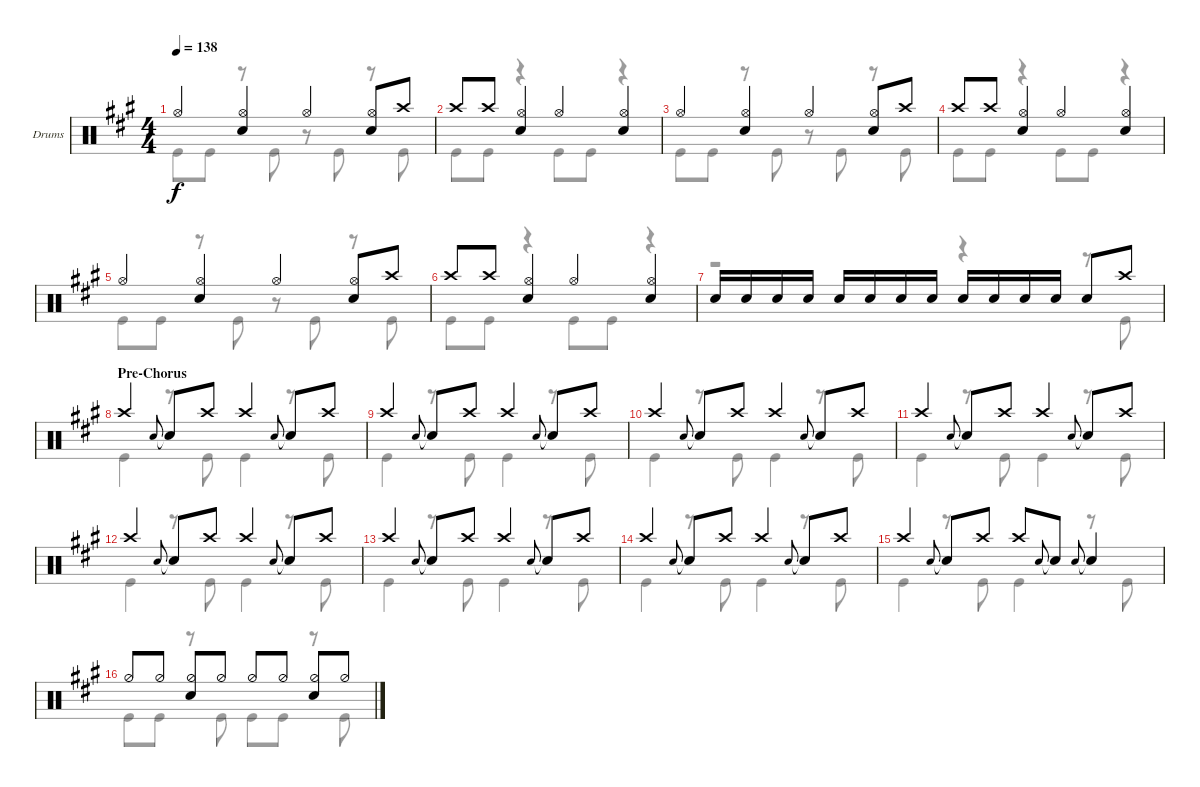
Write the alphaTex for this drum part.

\defaultSystemsLayout 4
\bracketExtendMode groupsimilarinstruments
\firstSystemTrackNameOrientation horizontal
\otherSystemsTrackNameOrientation horizontal
\track ("Drumkit" "Drums") {instrument percussion}
\staff {score}
\articulation defaults
\voice
\ts (4 4)
\tempo 138
\clef neutral
\ks a "Hi-Hat (open)".4{dy f}
("Snare (hit) 2" "Hi-Hat (open)").4 "Hi-Hat (open)".4 ("Snare (hit) 2" "Hi-Hat (open)").8 "Crash high (hit)".8 |
"Crash high (hit)".8 "Crash high (hit)".8 ("Hi-Hat (open)" "Snare (hit) 2").4 "Hi-Hat (open)".4 ("Hi-Hat (open)" "Snare (hit) 2").4 |
"Hi-Hat (open)".4 ("Snare (hit) 2" "Hi-Hat (open)").4 "Hi-Hat (open)".4 ("Snare (hit) 2" "Hi-Hat (open)").8 "Crash high (hit)".8 |
"Crash high (hit)".8 "Crash high (hit)".8 ("Hi-Hat (open)" "Snare (hit) 2").4 "Hi-Hat (open)".4 ("Hi-Hat (open)" "Snare (hit) 2").4 |
"Hi-Hat (open)".4 ("Snare (hit) 2" "Hi-Hat (open)").4 "Hi-Hat (open)".4 ("Snare (hit) 2" "Hi-Hat (open)").8 "Crash high (hit)".8 |
"Crash high (hit)".8 "Crash high (hit)".8 ("Hi-Hat (open)" "Snare (hit) 2").4 "Hi-Hat (open)".4 ("Hi-Hat (open)" "Snare (hit) 2").4 |
"Snare (hit) 2".16 "Snare (hit) 2".16 "Snare (hit) 2".16 "Snare (hit) 2".16 "Snare (hit) 2".16 "Snare (hit) 2".16 "Snare (hit) 2".16 "Snare (hit) 2".16 "Snare (hit) 2".16 "Snare (hit) 2".16 "Snare (hit) 2".16 "Snare (hit) 2".16 "Snare (hit) 2".8 "Crash high (hit)".8 |
\section ("" "Pre-Chorus")
"Crash high (hit)".4 "Snare (hit) 2".8{gr onbeat} "Snare (hit) 2"{t}.8 "Crash high (hit)".8 "Crash high (hit)".4 "Snare (hit) 2".8{gr onbeat} "Snare (hit) 2"{t}.8 "Crash high (hit)".8 |
"Crash high (hit)".4 "Snare (hit) 2".8{gr onbeat} "Snare (hit) 2"{t}.8 "Crash high (hit)".8 "Crash high (hit)".4 "Snare (hit) 2".8{gr onbeat} "Snare (hit) 2"{t}.8 "Crash high (hit)".8 |
"Crash high (hit)".4 "Snare (hit) 2".8{gr onbeat} "Snare (hit) 2"{t}.8 "Crash high (hit)".8 "Crash high (hit)".4 "Snare (hit) 2".8{gr onbeat} "Snare (hit) 2"{t}.8 "Crash high (hit)".8 |
"Crash high (hit)".4 "Snare (hit) 2".8{gr onbeat} "Snare (hit) 2"{t}.8 "Crash high (hit)".8 "Crash high (hit)".4 "Snare (hit) 2".8{gr onbeat} "Snare (hit) 2"{t}.8 "Crash high (hit)".8 |
"Crash high (hit)".4 "Snare (hit) 2".8{gr onbeat} "Snare (hit) 2"{t}.8 "Crash high (hit)".8 "Crash high (hit)".4 "Snare (hit) 2".8{gr onbeat} "Snare (hit) 2"{t}.8 "Crash high (hit)".8 |
"Crash high (hit)".4 "Snare (hit) 2".8{gr onbeat} "Snare (hit) 2"{t}.8 "Crash high (hit)".8 "Crash high (hit)".4 "Snare (hit) 2".8{gr onbeat} "Snare (hit) 2"{t}.8 "Crash high (hit)".8 |
"Crash high (hit)".4 "Snare (hit) 2".8{gr onbeat} "Snare (hit) 2"{t}.8 "Crash high (hit)".8 "Crash high (hit)".4 "Snare (hit) 2".8{gr onbeat} "Snare (hit) 2"{t}.8 "Crash high (hit)".8 |
"Crash high (hit)".4 "Snare (hit) 2".8{gr onbeat} "Snare (hit) 2"{t}.8 "Crash high (hit)".8 "Crash high (hit)".8 "Snare (hit) 2".8{gr onbeat} "Snare (hit) 2"{t}.8 "Snare (hit) 2".8{gr onbeat} "Snare (hit) 2"{t}.4 |
"Hi-Hat (half)".8 "Hi-Hat (half)".8 ("Hi-Hat (half)" "Snare (hit) 2").8 "Hi-Hat (half)".8 "Hi-Hat (half)".8 "Hi-Hat (half)".8 ("Hi-Hat (half)" "Snare (hit) 2").8 "Hi-Hat (half)".8
\voice
\clef neutral
\ottava regular
\simile none
\ks a "Kick (hit)".8{dy f} "Kick (hit)".8
r.8 "Kick (hit)".8 r.8 "Kick (hit)".8 r.8 "Kick (hit)".8 |
"Kick (hit)".8 "Kick (hit)".8 r.4 "Kick (hit)".8 "Kick (hit)".8 r.4 |
"Kick (hit)".8 "Kick (hit)".8 r.8 "Kick (hit)".8 r.8 "Kick (hit)".8 r.8 "Kick (hit)".8 |
"Kick (hit)".8 "Kick (hit)".8 r.4 "Kick (hit)".8 "Kick (hit)".8 r.4 |
"Kick (hit)".8 "Kick (hit)".8 r.8 "Kick (hit)".8 r.8 "Kick (hit)".8 r.8 "Kick (hit)".8 |
"Kick (hit)".8 "Kick (hit)".8 r.4 "Kick (hit)".8 "Kick (hit)".8 r.4 |
r.2 r.4 r.8 "Kick (hit)".8 |
"Kick (hit)".4 r.8 "Kick (hit)".8 "Kick (hit)".4 r.8 "Kick (hit)".8 |
"Kick (hit)".4 r.8 "Kick (hit)".8 "Kick (hit)".4 r.8 "Kick (hit)".8 |
"Kick (hit)".4 r.8 "Kick (hit)".8 "Kick (hit)".4 r.8 "Kick (hit)".8 |
"Kick (hit)".4 r.8 "Kick (hit)".8 "Kick (hit)".4 r.8 "Kick (hit)".8 |
"Kick (hit)".4 r.8 "Kick (hit)".8 "Kick (hit)".4 r.8 "Kick (hit)".8 |
"Kick (hit)".4 r.8 "Kick (hit)".8 "Kick (hit)".4 r.8 "Kick (hit)".8 |
"Kick (hit)".4 r.8 "Kick (hit)".8 "Kick (hit)".4 r.8 "Kick (hit)".8 |
"Kick (hit)".4 r.8 "Kick (hit)".8 "Kick (hit)".4 r.8 "Kick (hit)".8 |
"Kick (hit)".8 "Kick (hit)".8 r.8 "Kick (hit)".8 "Kick (hit)".8 "Kick (hit)".8 r.8 "Kick (hit)".8
